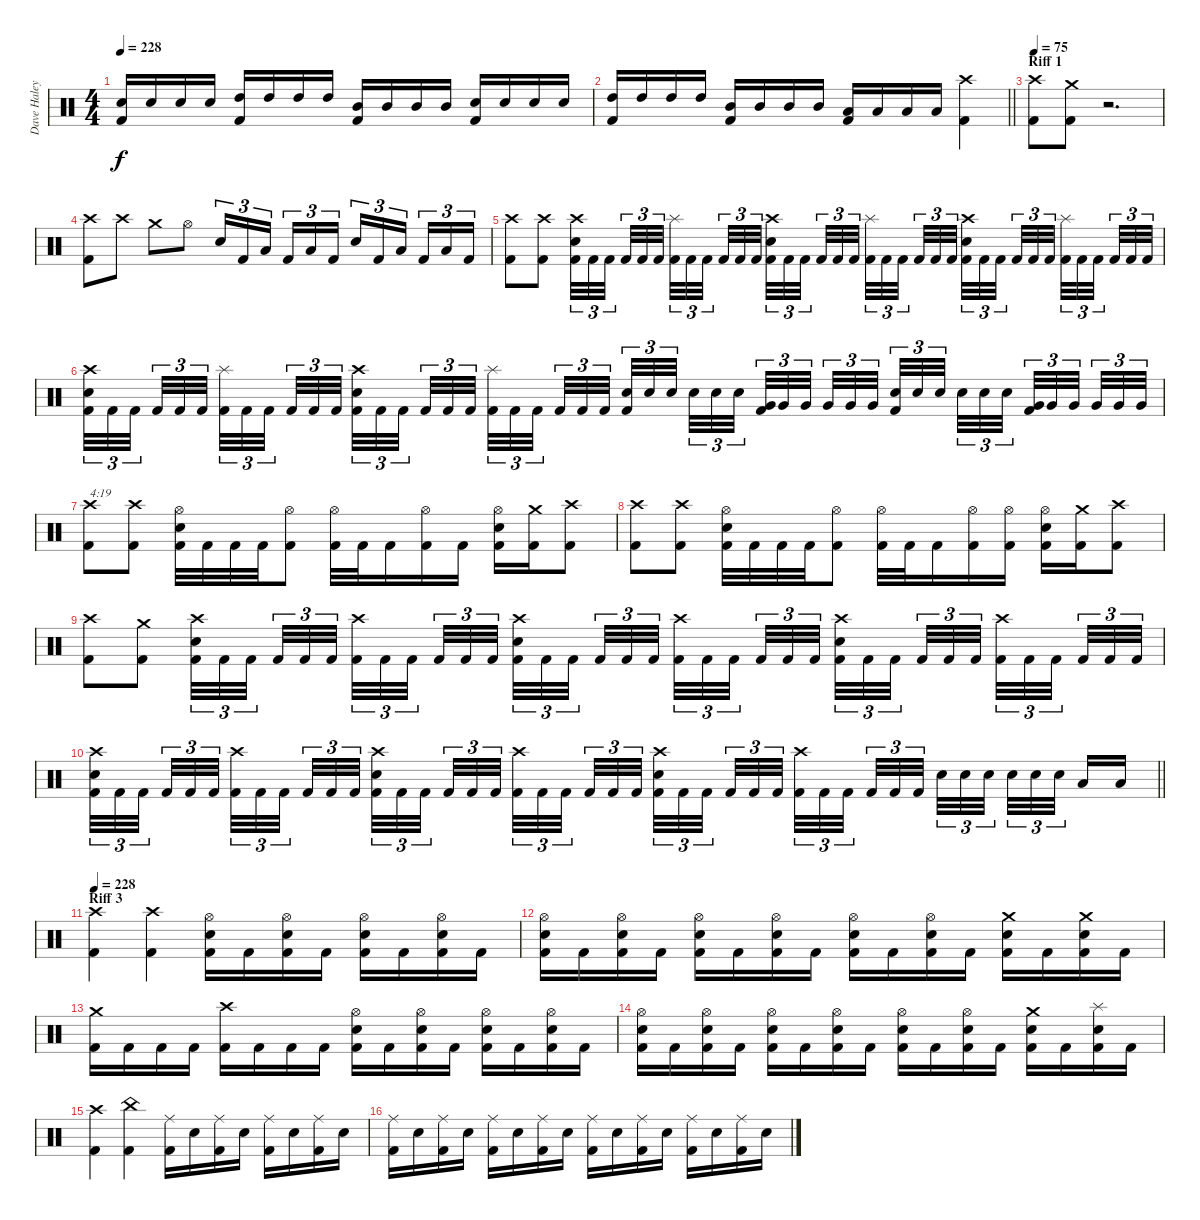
\track ("Dave Haley" "Dave Haley") {instrument percussion}
\staff {score}
\articulation defaults
\ts (4 4)
\tempo 228
\clef neutral
\ks c
("Snare (hit) 2" "Kick (hit) 2").16{dy f} "Snare (hit) 2".16 "Snare (hit) 2".16 "Snare (hit) 2".16 ("High Tom (hit)" "Kick (hit) 2").16 "High Tom (hit)".16 "High Tom (hit)".16 "High Tom (hit)".16 ("Mid Tom (hit)" "Kick (hit) 2").16 "Mid Tom (hit)".16 "Mid Tom (hit)".16 "Mid Tom (hit)".16 ("Snare (hit) 2" "Kick (hit) 2").16 "Snare (hit) 2".16 "Snare (hit) 2".16 "Snare (hit) 2".16 |
\barLineRight lightlight
("High Tom (hit)" "Kick (hit) 2").16 "High Tom (hit)".16 "High Tom (hit)".16 "High Tom (hit)".16 ("Mid Tom (hit)" "Kick (hit) 2").16 "Mid Tom (hit)".16 "Mid Tom (hit)".16 "Mid Tom (hit)".16 ("Low Tom (hit)" "Kick (hit) 2").16 "Low Tom (hit)".16 "Low Tom (hit)".16 "Low Tom (hit)".16 ("Crash high (hit)" "Kick (hit) 2").4 |
\section ("" "Riff 1")
\tempo 75
("Crash high (hit)" "Kick (hit) 2").8 ("Crash medium (hit)" "Kick (hit) 2").8 r.2{d} |
("Crash high (hit)" "Kick (hit) 2").8 "Crash high (hit)".8 "Crash medium (hit)".8 "Hi-Hat (open)".8 "Snare (hit) 2".16{tu (3 2)} "Kick (hit) 2".16{tu (3 2)} "Low Tom (hit)".16{tu (3 2) beam splitsecondary} "Kick (hit) 2".16{tu (3 2)} "Low Floor Tom (hit)".16{tu (3 2)} "Kick (hit) 2".16{tu (3 2)} "Snare (hit) 2".16{tu (3 2)} "Kick (hit) 2".16{tu (3 2)} "Low Tom (hit)".16{tu (3 2) beam splitsecondary} "Kick (hit) 2".16{tu (3 2)} "Low Floor Tom (hit)".16{tu (3 2)} "Kick (hit) 2".16{tu (3 2)} |
("Crash high (hit)" "Kick (hit) 2").8 ("Crash high (hit)" "Kick (hit) 2").8 ("Crash high (hit)" "Snare (hit) 2" "Kick (hit) 2").32{tu (3 2)} "Kick (hit) 2".32{tu (3 2)} "Kick (hit) 2".32{tu (3 2) beam splitsecondary} "Kick (hit) 2".32{tu (3 2)} "Kick (hit) 2".32{tu (3 2)} "Kick (hit) 2".32{tu (3 2) beam splitsecondary} ("Splash (hit)" "Kick (hit) 2").32{tu (3 2)} "Kick (hit) 2".32{tu (3 2)} "Kick (hit) 2".32{tu (3 2) beam splitsecondary} "Kick (hit) 2".32{tu (3 2)} "Kick (hit) 2".32{tu (3 2)} "Kick (hit) 2".32{tu (3 2)} ("Crash high (hit)" "Snare (hit) 2" "Kick (hit) 2").32{tu (3 2)} "Kick (hit) 2".32{tu (3 2)} "Kick (hit) 2".32{tu (3 2) beam splitsecondary} "Kick (hit) 2".32{tu (3 2)} "Kick (hit) 2".32{tu (3 2)} "Kick (hit) 2".32{tu (3 2) beam splitsecondary} ("Splash (hit)" "Kick (hit) 2").32{tu (3 2)} "Kick (hit) 2".32{tu (3 2)} "Kick (hit) 2".32{tu (3 2) beam splitsecondary} "Kick (hit) 2".32{tu (3 2)} "Kick (hit) 2".32{tu (3 2)} "Kick (hit) 2".32{tu (3 2)} ("Crash high (hit)" "Snare (hit) 2" "Kick (hit) 2").32{tu (3 2)} "Kick (hit) 2".32{tu (3 2)} "Kick (hit) 2".32{tu (3 2) beam splitsecondary} "Kick (hit) 2".32{tu (3 2)} "Kick (hit) 2".32{tu (3 2)} "Kick (hit) 2".32{tu (3 2) beam splitsecondary} ("Splash (hit)" "Kick (hit) 2").32{tu (3 2)} "Kick (hit) 2".32{tu (3 2)} "Kick (hit) 2".32{tu (3 2) beam splitsecondary} "Kick (hit) 2".32{tu (3 2)} "Kick (hit) 2".32{tu (3 2)} "Kick (hit) 2".32{tu (3 2)} |
("Crash high (hit)" "Snare (hit) 2" "Kick (hit) 2").32{tu (3 2)} "Kick (hit) 2".32{tu (3 2)} "Kick (hit) 2".32{tu (3 2) beam splitsecondary} "Kick (hit) 2".32{tu (3 2)} "Kick (hit) 2".32{tu (3 2)} "Kick (hit) 2".32{tu (3 2) beam splitsecondary} ("Splash (hit)" "Kick (hit) 2").32{tu (3 2)} "Kick (hit) 2".32{tu (3 2)} "Kick (hit) 2".32{tu (3 2) beam splitsecondary} "Kick (hit) 2".32{tu (3 2)} "Kick (hit) 2".32{tu (3 2)} "Kick (hit) 2".32{tu (3 2)} ("Crash high (hit)" "Snare (hit) 2" "Kick (hit) 2").32{tu (3 2)} "Kick (hit) 2".32{tu (3 2)} "Kick (hit) 2".32{tu (3 2) beam splitsecondary} "Kick (hit) 2".32{tu (3 2)} "Kick (hit) 2".32{tu (3 2)} "Kick (hit) 2".32{tu (3 2) beam splitsecondary} ("Splash (hit)" "Kick (hit) 2").32{tu (3 2)} "Kick (hit) 2".32{tu (3 2)} "Kick (hit) 2".32{tu (3 2) beam splitsecondary} "Kick (hit) 2".32{tu (3 2)} "Kick (hit) 2".32{tu (3 2)} "Kick (hit) 2".32{tu (3 2)} ("Snare (hit) 2" "Kick (hit) 2").32{tu (3 2)} "Snare (hit) 2".32{tu (3 2)} "Snare (hit) 2".32{tu (3 2) beam splitsecondary} "Snare (hit) 2".32{tu (3 2)} "Snare (hit) 2".32{tu (3 2)} "Snare (hit) 2".32{tu (3 2) beam splitsecondary} ("Very Low Tom (hit)" "Kick (hit) 2").32{tu (3 2)} "Very Low Tom (hit)".32{tu (3 2)} "Very Low Tom (hit)".32{tu (3 2) beam splitsecondary} "Very Low Tom (hit)".32{tu (3 2)} "Very Low Tom (hit)".32{tu (3 2)} "Very Low Tom (hit)".32{tu (3 2)} ("Snare (hit) 2" "Kick (hit) 2").32{tu (3 2)} "Snare (hit) 2".32{tu (3 2)} "Snare (hit) 2".32{tu (3 2) beam splitsecondary} "Snare (hit) 2".32{tu (3 2)} "Snare (hit) 2".32{tu (3 2)} "Snare (hit) 2".32{tu (3 2) beam splitsecondary} ("Very Low Tom (hit)" "Kick (hit) 2").32{tu (3 2)} "Very Low Tom (hit)".32{tu (3 2)} "Very Low Tom (hit)".32{tu (3 2) beam splitsecondary} "Very Low Tom (hit)".32{tu (3 2)} "Very Low Tom (hit)".32{tu (3 2)} "Very Low Tom (hit)".32{tu (3 2)} |
("Crash high (hit)" "Kick (hit) 2").8{txt "4:19"} ("Crash high (hit)" "Kick (hit) 2").8 ("Hi-Hat (open)" "Snare (hit) 2" "Kick (hit) 2").32 "Kick (hit) 2".32 "Kick (hit) 2".32 "Kick (hit) 2".32 ("Hi-Hat (open)" "Kick (hit) 2").8 ("Hi-Hat (open)" "Kick (hit) 2").32 "Kick (hit) 2".32 "Kick (hit) 2".16 ("Hi-Hat (open)" "Kick (hit) 2").16 "Kick (hit) 2".16 ("Hi-Hat (open)" "Snare (hit) 2" "Kick (hit) 2").16 ("Crash medium (hit)" "Kick (hit) 2").16 ("Crash high (hit)" "Kick (hit) 2").8 |
("Crash high (hit)" "Kick (hit) 2").8 ("Crash high (hit)" "Kick (hit) 2").8 ("Hi-Hat (open)" "Snare (hit) 2" "Kick (hit) 2").32 "Kick (hit) 2".32 "Kick (hit) 2".32 "Kick (hit) 2".32 ("Hi-Hat (open)" "Kick (hit) 2").8 ("Hi-Hat (open)" "Kick (hit) 2").32 "Kick (hit) 2".32 "Kick (hit) 2".16 ("Hi-Hat (open)" "Kick (hit) 2").16 ("Hi-Hat (open)" "Kick (hit) 2").16 ("Hi-Hat (open)" "Snare (hit) 2" "Kick (hit) 2").16 ("Crash medium (hit)" "Kick (hit) 2").16 ("Crash high (hit)" "Kick (hit) 2").8 |
("Crash high (hit)" "Kick (hit) 2").8 ("Crash medium (hit)" "Kick (hit) 2").8 ("Crash high (hit)" "Snare (hit) 2" "Kick (hit) 2").32{tu (3 2)} "Kick (hit) 2".32{tu (3 2)} "Kick (hit) 2".32{tu (3 2) beam splitsecondary} "Kick (hit) 2".32{tu (3 2)} "Kick (hit) 2".32{tu (3 2)} "Kick (hit) 2".32{tu (3 2) beam splitsecondary} ("Crash high (hit)" "Kick (hit) 2").32{tu (3 2)} "Kick (hit) 2".32{tu (3 2)} "Kick (hit) 2".32{tu (3 2) beam splitsecondary} "Kick (hit) 2".32{tu (3 2)} "Kick (hit) 2".32{tu (3 2)} "Kick (hit) 2".32{tu (3 2)} ("Crash high (hit)" "Snare (hit) 2" "Kick (hit) 2").32{tu (3 2)} "Kick (hit) 2".32{tu (3 2)} "Kick (hit) 2".32{tu (3 2) beam splitsecondary} "Kick (hit) 2".32{tu (3 2)} "Kick (hit) 2".32{tu (3 2)} "Kick (hit) 2".32{tu (3 2) beam splitsecondary} ("Crash high (hit)" "Kick (hit) 2").32{tu (3 2)} "Kick (hit) 2".32{tu (3 2)} "Kick (hit) 2".32{tu (3 2) beam splitsecondary} "Kick (hit) 2".32{tu (3 2)} "Kick (hit) 2".32{tu (3 2)} "Kick (hit) 2".32{tu (3 2)} ("Crash high (hit)" "Snare (hit) 2" "Kick (hit) 2").32{tu (3 2)} "Kick (hit) 2".32{tu (3 2)} "Kick (hit) 2".32{tu (3 2) beam splitsecondary} "Kick (hit) 2".32{tu (3 2)} "Kick (hit) 2".32{tu (3 2)} "Kick (hit) 2".32{tu (3 2) beam splitsecondary} ("Crash high (hit)" "Kick (hit) 2").32{tu (3 2)} "Kick (hit) 2".32{tu (3 2)} "Kick (hit) 2".32{tu (3 2) beam splitsecondary} "Kick (hit) 2".32{tu (3 2)} "Kick (hit) 2".32{tu (3 2)} "Kick (hit) 2".32{tu (3 2)} |
\barLineRight lightlight
("Crash high (hit)" "Snare (hit) 2" "Kick (hit) 2").32{tu (3 2)} "Kick (hit) 2".32{tu (3 2)} "Kick (hit) 2".32{tu (3 2) beam splitsecondary} "Kick (hit) 2".32{tu (3 2)} "Kick (hit) 2".32{tu (3 2)} "Kick (hit) 2".32{tu (3 2) beam splitsecondary} ("Crash high (hit)" "Kick (hit) 2").32{tu (3 2)} "Kick (hit) 2".32{tu (3 2)} "Kick (hit) 2".32{tu (3 2) beam splitsecondary} "Kick (hit) 2".32{tu (3 2)} "Kick (hit) 2".32{tu (3 2)} "Kick (hit) 2".32{tu (3 2)} ("Crash high (hit)" "Snare (hit) 2" "Kick (hit) 2").32{tu (3 2)} "Kick (hit) 2".32{tu (3 2)} "Kick (hit) 2".32{tu (3 2) beam splitsecondary} "Kick (hit) 2".32{tu (3 2)} "Kick (hit) 2".32{tu (3 2)} "Kick (hit) 2".32{tu (3 2) beam splitsecondary} ("Crash high (hit)" "Kick (hit) 2").32{tu (3 2)} "Kick (hit) 2".32{tu (3 2)} "Kick (hit) 2".32{tu (3 2) beam splitsecondary} "Kick (hit) 2".32{tu (3 2)} "Kick (hit) 2".32{tu (3 2)} "Kick (hit) 2".32{tu (3 2)} ("Crash high (hit)" "Snare (hit) 2" "Kick (hit) 2").32{tu (3 2)} "Kick (hit) 2".32{tu (3 2)} "Kick (hit) 2".32{tu (3 2) beam splitsecondary} "Kick (hit) 2".32{tu (3 2)} "Kick (hit) 2".32{tu (3 2)} "Kick (hit) 2".32{tu (3 2) beam splitsecondary} ("Crash high (hit)" "Kick (hit) 2").32{tu (3 2)} "Kick (hit) 2".32{tu (3 2)} "Kick (hit) 2".32{tu (3 2) beam splitsecondary} "Kick (hit) 2".32{tu (3 2)} "Kick (hit) 2".32{tu (3 2)} "Kick (hit) 2".32{tu (3 2)} "Snare (hit) 2".32{tu (3 2)} "Snare (hit) 2".32{tu (3 2)} "Snare (hit) 2".32{tu (3 2) beam splitsecondary} "Snare (hit) 2".32{tu (3 2)} "Snare (hit) 2".32{tu (3 2)} "Snare (hit) 2".32{tu (3 2) beam splitsecondary} "Low Tom (hit)".16 "Low Tom (hit)".16 |
\section ("" "Riff 3")
\tempo 228
("Crash high (hit)" "Kick (hit) 2").4 ("Crash high (hit)" "Kick (hit) 2").4 ("Hi-Hat (open)" "Snare (hit) 2" "Kick (hit) 2").16 "Kick (hit) 2".16 ("Hi-Hat (open)" "Snare (hit) 2" "Kick (hit) 2").16 "Kick (hit) 2".16 ("Hi-Hat (open)" "Snare (hit) 2" "Kick (hit) 2").16 "Kick (hit) 2".16 ("Hi-Hat (open)" "Snare (hit) 2" "Kick (hit) 2").16 "Kick (hit) 2".16 |
("Hi-Hat (open)" "Snare (hit) 2" "Kick (hit) 2").16 "Kick (hit) 2".16 ("Hi-Hat (open)" "Snare (hit) 2" "Kick (hit) 2").16 "Kick (hit) 2".16 ("Hi-Hat (open)" "Snare (hit) 2" "Kick (hit) 2").16 "Kick (hit) 2".16 ("Hi-Hat (open)" "Snare (hit) 2" "Kick (hit) 2").16 "Kick (hit) 2".16 ("Hi-Hat (open)" "Snare (hit) 2" "Kick (hit) 2").16 "Kick (hit) 2".16 ("Hi-Hat (open)" "Snare (hit) 2" "Kick (hit) 2").16 "Kick (hit) 2".16 ("Crash medium (hit)" "Snare (hit) 2" "Kick (hit) 2").16 "Kick (hit) 2".16 ("Crash medium (hit)" "Snare (hit) 2" "Kick (hit) 2").16 "Kick (hit) 2".16 |
("Crash medium (hit)" "Kick (hit) 2").16 "Kick (hit) 2".16 "Kick (hit) 2".16 "Kick (hit) 2".16 ("Crash high (hit)" "Kick (hit) 2").16 "Kick (hit) 2".16 "Kick (hit) 2".16 "Kick (hit) 2".16 ("Hi-Hat (open)" "Snare (hit) 2" "Kick (hit) 2").16 "Kick (hit) 2".16 ("Hi-Hat (open)" "Snare (hit) 2" "Kick (hit) 2").16 "Kick (hit) 2".16 ("Hi-Hat (open)" "Snare (hit) 2" "Kick (hit) 2").16 "Kick (hit) 2".16 ("Hi-Hat (open)" "Snare (hit) 2" "Kick (hit) 2").16 "Kick (hit) 2".16 |
("Hi-Hat (open)" "Snare (hit) 2" "Kick (hit) 2").16 "Kick (hit) 2".16 ("Hi-Hat (open)" "Snare (hit) 2" "Kick (hit) 2").16 "Kick (hit) 2".16 ("Hi-Hat (open)" "Snare (hit) 2" "Kick (hit) 2").16 "Kick (hit) 2".16 ("Hi-Hat (open)" "Snare (hit) 2" "Kick (hit) 2").16 "Kick (hit) 2".16 ("Hi-Hat (open)" "Snare (hit) 2" "Kick (hit) 2").16 "Kick (hit) 2".16 ("Hi-Hat (open)" "Snare (hit) 2" "Kick (hit) 2").16 "Kick (hit) 2".16 ("Crash medium (hit)" "Snare (hit) 2" "Kick (hit) 2").16 "Kick (hit) 2".16 ("Splash (hit)" "Snare (hit) 2" "Kick (hit) 2").16 "Kick (hit) 2".16 |
("Crash high (hit)" "Kick (hit) 2").4 ("China (hit)" "Kick (hit) 2").4 ("Ride (middle)" "Kick (hit) 2").16 "Snare (hit) 2".16 ("Ride (middle)" "Kick (hit) 2").16 "Snare (hit) 2".16 ("Ride (middle)" "Kick (hit) 2").16 "Snare (hit) 2".16 ("Ride (middle)" "Kick (hit) 2").16 "Snare (hit) 2".16 |
("Ride (middle)" "Kick (hit) 2").16 "Snare (hit) 2".16 ("Ride (middle)" "Kick (hit) 2").16 "Snare (hit) 2".16 ("Ride (middle)" "Kick (hit) 2").16 "Snare (hit) 2".16 ("Ride (middle)" "Kick (hit) 2").16 "Snare (hit) 2".16 ("Ride (middle)" "Kick (hit) 2").16 "Snare (hit) 2".16 ("Ride (middle)" "Kick (hit) 2").16 "Snare (hit) 2".16 ("Ride (middle)" "Kick (hit) 2").16 "Snare (hit) 2".16 ("Ride (middle)" "Kick (hit) 2").16 "Snare (hit) 2".16
